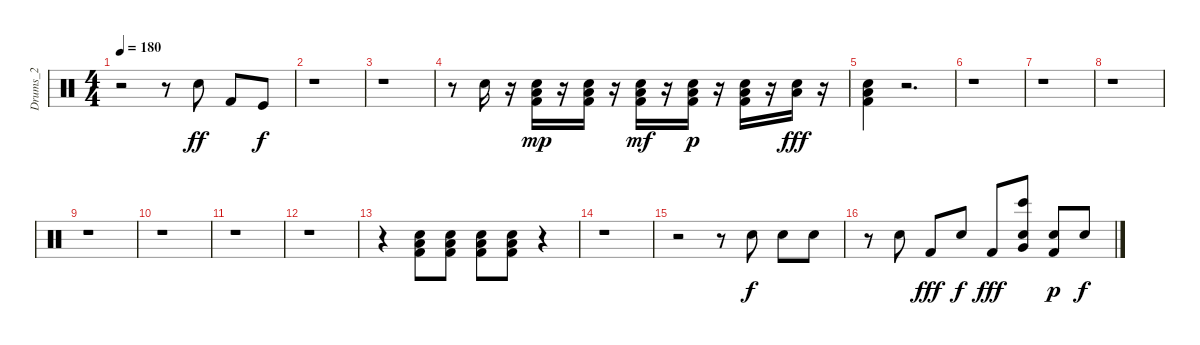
\track ("Drums_2" "Drums_2") {instrument percussion}
\staff {score}
\articulation defaults
\ts (4 4)
\tempo 180
\clef neutral
\ks c
r.2{dy f} r.8 "Snare (hit) 2".8{dy ff} "Kick (hit) 2".8 "Kick (hit)".8{dy f} |
r.1 |
r.1 |
r.8 "Snare (hit) 2".16 r.16 ("Kick (hit) 2" "Snare (hit) 2" "Low Floor Tom (hit)").16{dy mp} r.16 ("Kick (hit) 2" "Snare (hit) 2" "Low Floor Tom (hit)").16 r.16 ("Kick (hit) 2" "Snare (hit) 2" "Low Floor Tom (hit)").16{dy mf} r.16 ("Kick (hit) 2" "Snare (hit) 2" "Low Floor Tom (hit)").16{dy p} r.16 ("Kick (hit) 2" "Snare (hit) 2" "Low Floor Tom (hit)").16 r.16 ("Snare (hit) 2" "Low Floor Tom (hit)").16{dy fff} r.16 |
("Kick (hit) 2" "Snare (hit) 2" "Low Floor Tom (hit)").4 r.2{d} |
r.1 |
r.1 |
r.1 |
r.1 |
r.1 |
r.1 |
r.1 |
r.4 ("Kick (hit) 2" "Snare (hit) 2" "Low Floor Tom (hit)").8 ("Kick (hit) 2" "Snare (hit) 2" "Low Floor Tom (hit)").8 ("Kick (hit) 2" "Snare (hit) 2" "Low Floor Tom (hit)").8 ("Kick (hit) 2" "Snare (hit) 2" "Low Floor Tom (hit)").8 r.4 |
r.1 |
r.2 r.8 "Snare (hit) 2".8{dy f} "Snare (hit) 2".8 "Snare (hit) 2".8 |
r.8 "Snare (hit) 2".8 "Kick (hit) 2".8{dy fff} "Snare (hit) 2".8{dy f} "Kick (hit) 2".8{dy fff} ("Bongo High (hit)" "Snare (hit) 2" "Very Low Tom (hit)").8 ("Kick (hit) 2" "Snare (hit) 2").8{dy p} "Snare (hit) 2".8{dy f}
